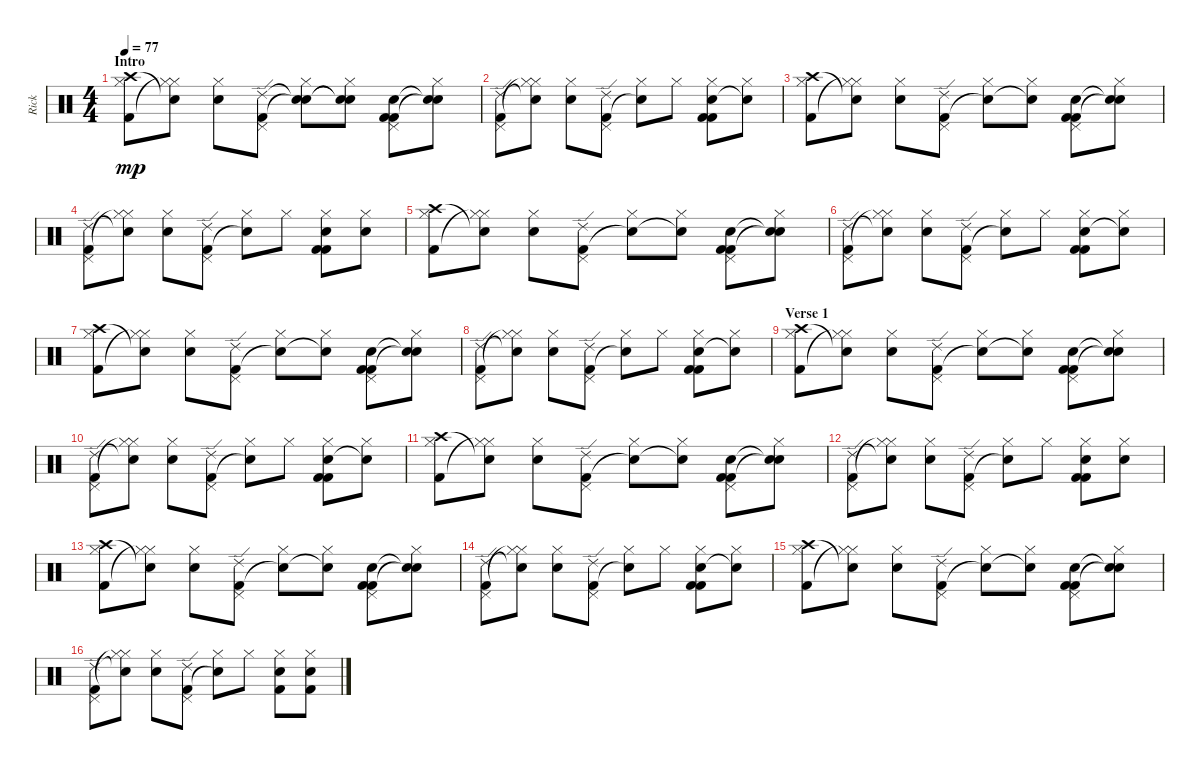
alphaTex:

\track ("Rick" "Rick") {instrument percussion}
\staff {score}
\articulation defaults
\ts (4 4)
\section ("" "Intro")
\tempo 77
\clef neutral
\ks c
("Hi-Hat (closed)" "Kick (hit) 2" "Crash high (hit)").8{dy mp} ("Hi-Hat (closed)" "Hi-Hat (closed)"{t} "Snare (hit)"{t}).8 ("Hi-Hat (closed)" "Electric Snare (hit)").8 ("Pedal Hi-Hat (hit)" "Kick (hit) 2" "Ride (edge) 2").8 ("Hi-Hat (closed)" "Snare (hit)"{t} "Snare (hit)"{t}).8 ("Hi-Hat (closed)" "Snare (hit)"{t} "Snare (hit)"{t}).8 ("Pedal Hi-Hat (hit)" "Electric Snare (hit)" "Kick (hit) 2" "Kick (hit) 2").8 ("Hi-Hat (closed)" "Snare (hit)"{t} "Snare (hit)"{t}).8 |
("Pedal Hi-Hat (hit)" "Kick (hit) 2" "Ride (edge) 2").8 ("Hi-Hat (closed)" "Hi-Hat (closed)"{t} "Snare (hit)"{t}).8 ("Hi-Hat (closed)" "Electric Snare (hit)").8 ("Pedal Hi-Hat (hit)" "Kick (hit) 2" "Ride (edge) 2").8 ("Hi-Hat (closed)" "Snare (hit)"{t}).8 "Hi-Hat (closed)".8 ("Hi-Hat (closed)" "Electric Snare (hit)" "Kick (hit) 2" "Kick (hit) 2").8 ("Hi-Hat (closed)" "Snare (hit)"{t}).8 |
("Hi-Hat (closed)" "Kick (hit) 2" "Crash high (hit)").8 ("Hi-Hat (closed)" "Hi-Hat (closed)"{t} "Snare (hit)"{t}).8 ("Hi-Hat (closed)" "Electric Snare (hit)").8 ("Pedal Hi-Hat (hit)" "Kick (hit) 2" "Ride (edge) 2").8 ("Hi-Hat (closed)" "Snare (hit)"{t}).8 ("Hi-Hat (closed)" "Snare (hit)"{t}).8 ("Pedal Hi-Hat (hit)" "Electric Snare (hit)" "Kick (hit) 2" "Kick (hit) 2").8 ("Hi-Hat (closed)" "Snare (hit)"{t} "Snare (hit)"{t}).8 |
("Pedal Hi-Hat (hit)" "Kick (hit) 2" "Ride (edge) 2").8 ("Hi-Hat (closed)" "Hi-Hat (closed)"{t} "Snare (hit)"{t}).8 ("Hi-Hat (closed)" "Electric Snare (hit)").8 ("Pedal Hi-Hat (hit)" "Kick (hit) 2" "Ride (edge) 2").8 ("Hi-Hat (closed)" "Snare (hit)"{t}).8 "Hi-Hat (closed)".8 ("Hi-Hat (closed)" "Electric Snare (hit)" "Kick (hit) 2" "Kick (hit) 2").8 ("Hi-Hat (closed)" "Electric Snare (hit)").8 |
("Hi-Hat (closed)" "Kick (hit) 2" "Crash high (hit)").8 ("Hi-Hat (closed)" "Hi-Hat (closed)"{t} "Snare (hit)"{t}).8 ("Hi-Hat (closed)" "Electric Snare (hit)").8 ("Pedal Hi-Hat (hit)" "Kick (hit) 2" "Ride (edge) 2").8 ("Hi-Hat (closed)" "Snare (hit)"{t}).8 ("Hi-Hat (closed)" "Snare (hit)"{t}).8 ("Pedal Hi-Hat (hit)" "Electric Snare (hit)" "Kick (hit) 2" "Kick (hit) 2").8 ("Hi-Hat (closed)" "Snare (hit)"{t} "Snare (hit)"{t}).8 |
("Pedal Hi-Hat (hit)" "Kick (hit) 2" "Ride (edge) 2").8 ("Hi-Hat (closed)" "Hi-Hat (closed)"{t} "Snare (hit)"{t}).8 ("Hi-Hat (closed)" "Electric Snare (hit)").8 ("Pedal Hi-Hat (hit)" "Kick (hit) 2" "Ride (edge) 2").8 ("Hi-Hat (closed)" "Snare (hit)"{t}).8 "Hi-Hat (closed)".8 ("Hi-Hat (closed)" "Electric Snare (hit)" "Kick (hit) 2" "Kick (hit) 2").8 ("Hi-Hat (closed)" "Snare (hit)"{t}).8 |
("Hi-Hat (closed)" "Kick (hit) 2" "Crash high (hit)").8 ("Hi-Hat (closed)" "Hi-Hat (closed)"{t} "Snare (hit)"{t}).8 ("Hi-Hat (closed)" "Electric Snare (hit)").8 ("Pedal Hi-Hat (hit)" "Kick (hit) 2" "Ride (edge) 2").8 ("Hi-Hat (closed)" "Snare (hit)"{t}).8 ("Hi-Hat (closed)" "Electric Snare (hit)"{t}).8 ("Pedal Hi-Hat (hit)" "Electric Snare (hit)" "Kick (hit) 2" "Kick (hit) 2").8 ("Hi-Hat (closed)" "Snare (hit)"{t} "Snare (hit)"{t}).8 |
("Pedal Hi-Hat (hit)" "Kick (hit) 2" "Ride (edge) 2").8 ("Hi-Hat (closed)" "Hi-Hat (closed)"{t} "Snare (hit)"{t}).8 ("Hi-Hat (closed)" "Electric Snare (hit)").8 ("Pedal Hi-Hat (hit)" "Kick (hit) 2" "Ride (edge) 2").8 ("Hi-Hat (closed)" "Snare (hit)"{t}).8 "Hi-Hat (closed)".8 ("Hi-Hat (closed)" "Electric Snare (hit)" "Kick (hit) 2" "Kick (hit) 2").8 ("Hi-Hat (closed)" "Snare (hit)"{t}).8 |
\section ("" "Verse 1")
("Hi-Hat (closed)" "Kick (hit) 2" "Crash high (hit)").8 ("Hi-Hat (closed)" "Hi-Hat (closed)"{t} "Snare (hit)"{t}).8 ("Hi-Hat (closed)" "Electric Snare (hit)").8 ("Pedal Hi-Hat (hit)" "Kick (hit) 2" "Ride (edge) 2").8 ("Hi-Hat (closed)" "Snare (hit)"{t}).8 ("Hi-Hat (closed)" "Snare (hit)"{t}).8 ("Pedal Hi-Hat (hit)" "Electric Snare (hit)" "Kick (hit) 2" "Kick (hit) 2").8 ("Hi-Hat (closed)" "Snare (hit)"{t} "Snare (hit)"{t}).8 |
("Pedal Hi-Hat (hit)" "Kick (hit) 2" "Ride (edge) 2").8 ("Hi-Hat (closed)" "Hi-Hat (closed)"{t} "Snare (hit)"{t}).8 ("Hi-Hat (closed)" "Electric Snare (hit)").8 ("Pedal Hi-Hat (hit)" "Kick (hit) 2" "Ride (edge) 2").8 ("Hi-Hat (closed)" "Snare (hit)"{t}).8 "Hi-Hat (closed)".8 ("Hi-Hat (closed)" "Electric Snare (hit)" "Kick (hit) 2" "Kick (hit) 2").8 ("Hi-Hat (closed)" "Snare (hit)"{t}).8 |
("Hi-Hat (closed)" "Kick (hit) 2" "Crash high (hit)").8 ("Hi-Hat (closed)" "Hi-Hat (closed)"{t} "Snare (hit)"{t}).8 ("Hi-Hat (closed)" "Electric Snare (hit)").8 ("Pedal Hi-Hat (hit)" "Kick (hit) 2" "Ride (edge) 2").8 ("Hi-Hat (closed)" "Snare (hit)"{t}).8 ("Hi-Hat (closed)" "Snare (hit)"{t}).8 ("Pedal Hi-Hat (hit)" "Electric Snare (hit)" "Kick (hit) 2" "Kick (hit) 2").8 ("Hi-Hat (closed)" "Snare (hit)"{t} "Snare (hit)"{t}).8 |
("Pedal Hi-Hat (hit)" "Kick (hit) 2" "Ride (edge) 2").8 ("Hi-Hat (closed)" "Hi-Hat (closed)"{t} "Snare (hit)"{t}).8 ("Hi-Hat (closed)" "Electric Snare (hit)").8 ("Pedal Hi-Hat (hit)" "Kick (hit) 2" "Ride (edge) 2").8 ("Hi-Hat (closed)" "Snare (hit)"{t}).8 "Hi-Hat (closed)".8 ("Hi-Hat (closed)" "Electric Snare (hit)" "Kick (hit) 2" "Kick (hit) 2").8 ("Hi-Hat (closed)" "Electric Snare (hit)").8 |
("Hi-Hat (closed)" "Kick (hit) 2" "Crash high (hit)").8 ("Hi-Hat (closed)" "Hi-Hat (closed)"{t} "Snare (hit)"{t}).8 ("Hi-Hat (closed)" "Electric Snare (hit)").8 ("Pedal Hi-Hat (hit)" "Kick (hit) 2" "Ride (edge) 2").8 ("Hi-Hat (closed)" "Snare (hit)"{t}).8 ("Hi-Hat (closed)" "Snare (hit)"{t}).8 ("Pedal Hi-Hat (hit)" "Electric Snare (hit)" "Kick (hit) 2" "Kick (hit) 2").8 ("Hi-Hat (closed)" "Snare (hit)"{t} "Snare (hit)"{t}).8 |
("Pedal Hi-Hat (hit)" "Kick (hit) 2" "Ride (edge) 2").8 ("Hi-Hat (closed)" "Hi-Hat (closed)"{t} "Snare (hit)"{t}).8 ("Hi-Hat (closed)" "Electric Snare (hit)").8 ("Pedal Hi-Hat (hit)" "Kick (hit) 2" "Ride (edge) 2").8 ("Hi-Hat (closed)" "Snare (hit)"{t}).8 "Hi-Hat (closed)".8 ("Hi-Hat (closed)" "Electric Snare (hit)" "Kick (hit) 2" "Kick (hit) 2").8 ("Hi-Hat (closed)" "Snare (hit)"{t}).8 |
("Hi-Hat (closed)" "Kick (hit) 2" "Crash high (hit)").8 ("Hi-Hat (closed)" "Hi-Hat (closed)"{t} "Snare (hit)"{t}).8 ("Hi-Hat (closed)" "Electric Snare (hit)").8 ("Pedal Hi-Hat (hit)" "Kick (hit) 2" "Ride (edge) 2").8 ("Hi-Hat (closed)" "Snare (hit)"{t}).8 ("Hi-Hat (closed)" "Snare (hit)"{t}).8 ("Pedal Hi-Hat (hit)" "Electric Snare (hit)" "Kick (hit) 2" "Kick (hit) 2").8 ("Hi-Hat (closed)" "Snare (hit)"{t} "Snare (hit)"{t}).8 |
("Pedal Hi-Hat (hit)" "Kick (hit) 2" "Ride (edge) 2").8 ("Hi-Hat (closed)" "Hi-Hat (closed)"{t} "Snare (hit)"{t}).8 ("Hi-Hat (closed)" "Electric Snare (hit)").8 ("Pedal Hi-Hat (hit)" "Kick (hit) 2" "Ride (edge) 2").8 ("Hi-Hat (closed)" "Snare (hit)"{t}).8 "Hi-Hat (closed)".8 ("Hi-Hat (closed)" "Electric Snare (hit)" "Kick (hit) 2").8 ("Hi-Hat (closed)" "Electric Snare (hit)" "Kick (hit) 2").8
